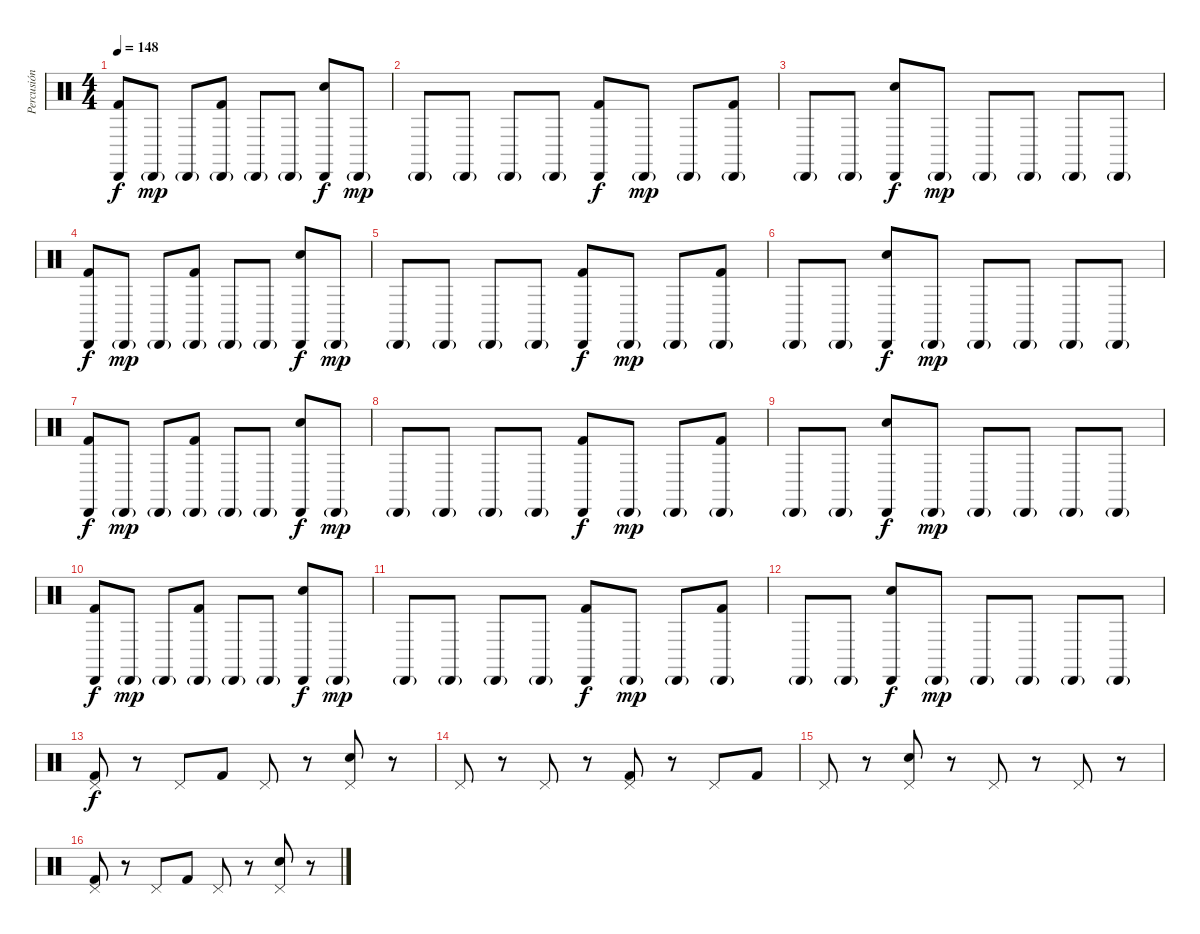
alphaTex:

\track ("Percusión" "Percusión") {instrument percussion}
\staff {score}
\articulation defaults
\ts (4 4)
\tempo 148
\clef neutral
\ks c
("Kick (hit) 2" "Cabasa (hit)").8{dy f} "Cabasa (hit)"{g}.8{dy mp} "Cabasa (hit)"{g}.8 ("Kick (hit) 2" "Cabasa (hit)"{g}).8 "Cabasa (hit)"{g}.8 "Cabasa (hit)"{g}.8 ("Electric Snare (hit)" "Cabasa (hit)").8{dy f} "Cabasa (hit)"{g}.8{dy mp} |
"Cabasa (hit)"{g}.8 "Cabasa (hit)"{g}.8 "Cabasa (hit)"{g}.8 "Cabasa (hit)"{g}.8 ("Kick (hit) 2" "Cabasa (hit)").8{dy f} "Cabasa (hit)"{g}.8{dy mp} "Cabasa (hit)"{g}.8 ("Kick (hit) 2" "Cabasa (hit)"{g}).8 |
"Cabasa (hit)"{g}.8 "Cabasa (hit)"{g}.8 ("Electric Snare (hit)" "Cabasa (hit)").8{dy f} "Cabasa (hit)"{g}.8{dy mp} "Cabasa (hit)"{g}.8 "Cabasa (hit)"{g}.8 "Cabasa (hit)"{g}.8 "Cabasa (hit)"{g}.8 |
("Kick (hit) 2" "Cabasa (hit)").8{dy f} "Cabasa (hit)"{g}.8{dy mp} "Cabasa (hit)"{g}.8 ("Kick (hit) 2" "Cabasa (hit)"{g}).8 "Cabasa (hit)"{g}.8 "Cabasa (hit)"{g}.8 ("Electric Snare (hit)" "Cabasa (hit)").8{dy f} "Cabasa (hit)"{g}.8{dy mp} |
"Cabasa (hit)"{g}.8 "Cabasa (hit)"{g}.8 "Cabasa (hit)"{g}.8 "Cabasa (hit)"{g}.8 ("Kick (hit) 2" "Cabasa (hit)").8{dy f} "Cabasa (hit)"{g}.8{dy mp} "Cabasa (hit)"{g}.8 ("Kick (hit) 2" "Cabasa (hit)"{g}).8 |
"Cabasa (hit)"{g}.8 "Cabasa (hit)"{g}.8 ("Electric Snare (hit)" "Cabasa (hit)").8{dy f} "Cabasa (hit)"{g}.8{dy mp} "Cabasa (hit)"{g}.8 "Cabasa (hit)"{g}.8 "Cabasa (hit)"{g}.8 "Cabasa (hit)"{g}.8 |
("Kick (hit) 2" "Cabasa (hit)").8{dy f} "Cabasa (hit)"{g}.8{dy mp} "Cabasa (hit)"{g}.8 ("Kick (hit) 2" "Cabasa (hit)"{g}).8 "Cabasa (hit)"{g}.8 "Cabasa (hit)"{g}.8 ("Electric Snare (hit)" "Cabasa (hit)").8{dy f} "Cabasa (hit)"{g}.8{dy mp} |
"Cabasa (hit)"{g}.8 "Cabasa (hit)"{g}.8 "Cabasa (hit)"{g}.8 "Cabasa (hit)"{g}.8 ("Kick (hit) 2" "Cabasa (hit)").8{dy f} "Cabasa (hit)"{g}.8{dy mp} "Cabasa (hit)"{g}.8 ("Kick (hit) 2" "Cabasa (hit)"{g}).8 |
"Cabasa (hit)"{g}.8 "Cabasa (hit)"{g}.8 ("Electric Snare (hit)" "Cabasa (hit)").8{dy f} "Cabasa (hit)"{g}.8{dy mp} "Cabasa (hit)"{g}.8 "Cabasa (hit)"{g}.8 "Cabasa (hit)"{g}.8 "Cabasa (hit)"{g}.8 |
("Kick (hit) 2" "Cabasa (hit)").8{dy f} "Cabasa (hit)"{g}.8{dy mp} "Cabasa (hit)"{g}.8 ("Kick (hit) 2" "Cabasa (hit)"{g}).8 "Cabasa (hit)"{g}.8 "Cabasa (hit)"{g}.8 ("Electric Snare (hit)" "Cabasa (hit)").8{dy f} "Cabasa (hit)"{g}.8{dy mp} |
"Cabasa (hit)"{g}.8 "Cabasa (hit)"{g}.8 "Cabasa (hit)"{g}.8 "Cabasa (hit)"{g}.8 ("Kick (hit) 2" "Cabasa (hit)").8{dy f} "Cabasa (hit)"{g}.8{dy mp} "Cabasa (hit)"{g}.8 ("Kick (hit) 2" "Cabasa (hit)"{g}).8 |
"Cabasa (hit)"{g}.8 "Cabasa (hit)"{g}.8 ("Electric Snare (hit)" "Cabasa (hit)").8{dy f} "Cabasa (hit)"{g}.8{dy mp} "Cabasa (hit)"{g}.8 "Cabasa (hit)"{g}.8 "Cabasa (hit)"{g}.8 "Cabasa (hit)"{g}.8 |
("Pedal Hi-Hat (hit)" "Kick (hit) 2").8{dy f} r.8 "Pedal Hi-Hat (hit)".8 "Kick (hit) 2".8 "Pedal Hi-Hat (hit)".8 r.8 ("Pedal Hi-Hat (hit)" "Electric Snare (hit)").8 r.8 |
"Pedal Hi-Hat (hit)".8 r.8 "Pedal Hi-Hat (hit)".8 r.8 ("Pedal Hi-Hat (hit)" "Kick (hit) 2").8 r.8 "Pedal Hi-Hat (hit)".8 "Kick (hit) 2".8 |
"Pedal Hi-Hat (hit)".8 r.8 ("Pedal Hi-Hat (hit)" "Electric Snare (hit)").8 r.8 "Pedal Hi-Hat (hit)".8 r.8 "Pedal Hi-Hat (hit)".8 r.8 |
("Pedal Hi-Hat (hit)" "Kick (hit) 2").8 r.8 "Pedal Hi-Hat (hit)".8 "Kick (hit) 2".8 "Pedal Hi-Hat (hit)".8 r.8 ("Pedal Hi-Hat (hit)" "Electric Snare (hit)").8 r.8
